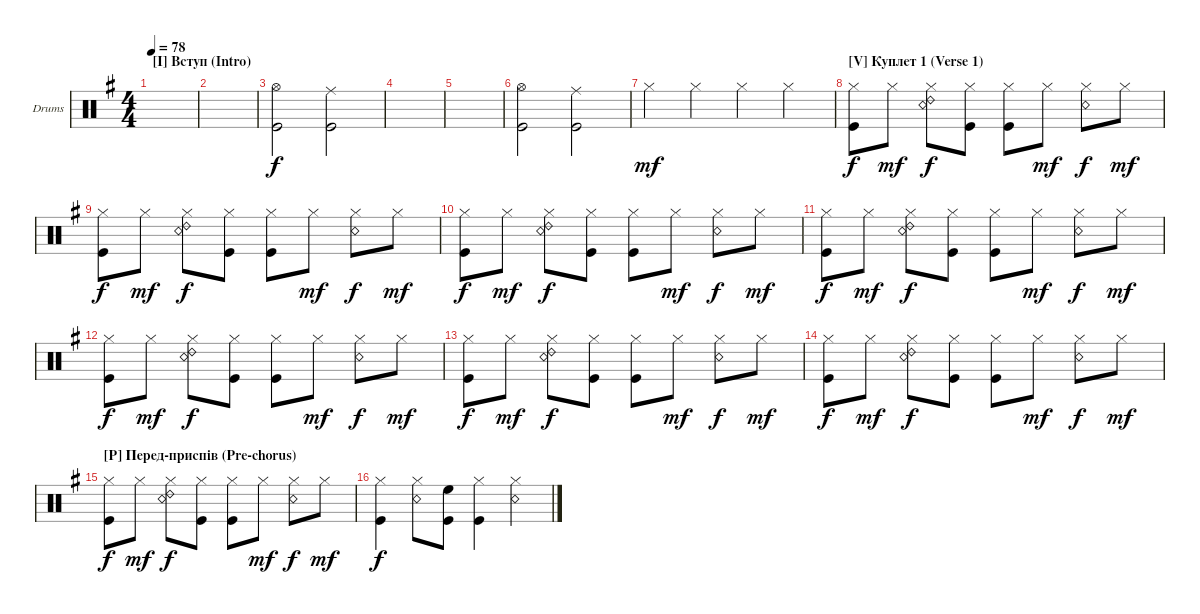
\defaultSystemsLayout 4
\bracketExtendMode groupsimilarinstruments
\firstSystemTrackNameOrientation horizontal
\otherSystemsTrackNameOrientation horizontal
\track ("Drumkit (Darrell Sweet)" "Drums") {instrument percussion}
\staff {score}
\articulation defaults
\ts (4 4)
\section ("I" "Вступ (Intro)")
\tempo 78
\clef neutral
\ks eminor
|
|
("Kick (hit)" "Hi-Hat (open)").2 ("Kick (hit)" "Ride (middle)").2 |
|
|
("Kick (hit)" "Hi-Hat (open)").2 ("Kick (hit)" "Ride (middle)").2 |
"Hi-Hat (closed)".4{dy mf} "Hi-Hat (closed)".4 "Hi-Hat (closed)".4 "Hi-Hat (closed)".4 |
\section ("V" "Куплет 1 (Verse 1)")
("Hi-Hat (closed)" "Kick (hit)").8{dy f} "Hi-Hat (closed)".8{dy mf} ("Snare (rim shot)" "Hi-Hat (closed)" "Ride (bell) 2").8{dy f} ("Hi-Hat (closed)" "Kick (hit)").8 ("Hi-Hat (closed)" "Kick (hit)").8 "Hi-Hat (closed)".8{dy mf} ("Snare (rim shot)" "Hi-Hat (closed)").8{dy f} "Hi-Hat (closed)".8{dy mf} |
("Hi-Hat (closed)" "Kick (hit)").8{dy f} "Hi-Hat (closed)".8{dy mf} ("Snare (rim shot)" "Hi-Hat (closed)" "Ride (bell) 2").8{dy f} ("Hi-Hat (closed)" "Kick (hit)").8 ("Hi-Hat (closed)" "Kick (hit)").8 "Hi-Hat (closed)".8{dy mf} ("Snare (rim shot)" "Hi-Hat (closed)").8{dy f} "Hi-Hat (closed)".8{dy mf} |
("Hi-Hat (closed)" "Kick (hit)").8{dy f} "Hi-Hat (closed)".8{dy mf} ("Snare (rim shot)" "Hi-Hat (closed)" "Ride (bell) 2").8{dy f} ("Hi-Hat (closed)" "Kick (hit)").8 ("Hi-Hat (closed)" "Kick (hit)").8 "Hi-Hat (closed)".8{dy mf} ("Snare (rim shot)" "Hi-Hat (closed)").8{dy f} "Hi-Hat (closed)".8{dy mf} |
("Hi-Hat (closed)" "Kick (hit)").8{dy f} "Hi-Hat (closed)".8{dy mf} ("Snare (rim shot)" "Hi-Hat (closed)" "Ride (bell) 2").8{dy f} ("Hi-Hat (closed)" "Kick (hit)").8 ("Hi-Hat (closed)" "Kick (hit)").8 "Hi-Hat (closed)".8{dy mf} ("Snare (rim shot)" "Hi-Hat (closed)").8{dy f} "Hi-Hat (closed)".8{dy mf} |
("Hi-Hat (closed)" "Kick (hit)").8{dy f} "Hi-Hat (closed)".8{dy mf} ("Snare (rim shot)" "Hi-Hat (closed)" "Ride (bell) 2").8{dy f} ("Hi-Hat (closed)" "Kick (hit)").8 ("Hi-Hat (closed)" "Kick (hit)").8 "Hi-Hat (closed)".8{dy mf} ("Snare (rim shot)" "Hi-Hat (closed)").8{dy f} "Hi-Hat (closed)".8{dy mf} |
("Hi-Hat (closed)" "Kick (hit)").8{dy f} "Hi-Hat (closed)".8{dy mf} ("Snare (rim shot)" "Hi-Hat (closed)" "Ride (bell) 2").8{dy f} ("Hi-Hat (closed)" "Kick (hit)").8 ("Hi-Hat (closed)" "Kick (hit)").8 "Hi-Hat (closed)".8{dy mf} ("Snare (rim shot)" "Hi-Hat (closed)").8{dy f} "Hi-Hat (closed)".8{dy mf} |
("Hi-Hat (closed)" "Kick (hit)").8{dy f} "Hi-Hat (closed)".8{dy mf} ("Snare (rim shot)" "Hi-Hat (closed)" "Ride (bell) 2").8{dy f} ("Hi-Hat (closed)" "Kick (hit)").8 ("Hi-Hat (closed)" "Kick (hit)").8 "Hi-Hat (closed)".8{dy mf} ("Snare (rim shot)" "Hi-Hat (closed)").8{dy f} "Hi-Hat (closed)".8{dy mf} |
\section ("P" "Перед-приспів (Pre-chorus)")
("Hi-Hat (closed)" "Kick (hit)").8{dy f} "Hi-Hat (closed)".8{dy mf} ("Snare (rim shot)" "Hi-Hat (closed)" "Ride (bell) 2").8{dy f} ("Hi-Hat (closed)" "Kick (hit)").8 ("Hi-Hat (closed)" "Kick (hit)").8 "Hi-Hat (closed)".8{dy mf} ("Snare (rim shot)" "Hi-Hat (closed)").8{dy f} "Hi-Hat (closed)".8{dy mf} |
("Hi-Hat (closed)" "Kick (hit)").4{dy f} ("Snare (rim shot)" "Hi-Hat (closed)").8 ("Kick (hit)" "High Floor Tom (hit)").8 ("Hi-Hat (closed)" "Kick (hit)").4 ("Snare (rim shot)" "Hi-Hat (closed)").4
